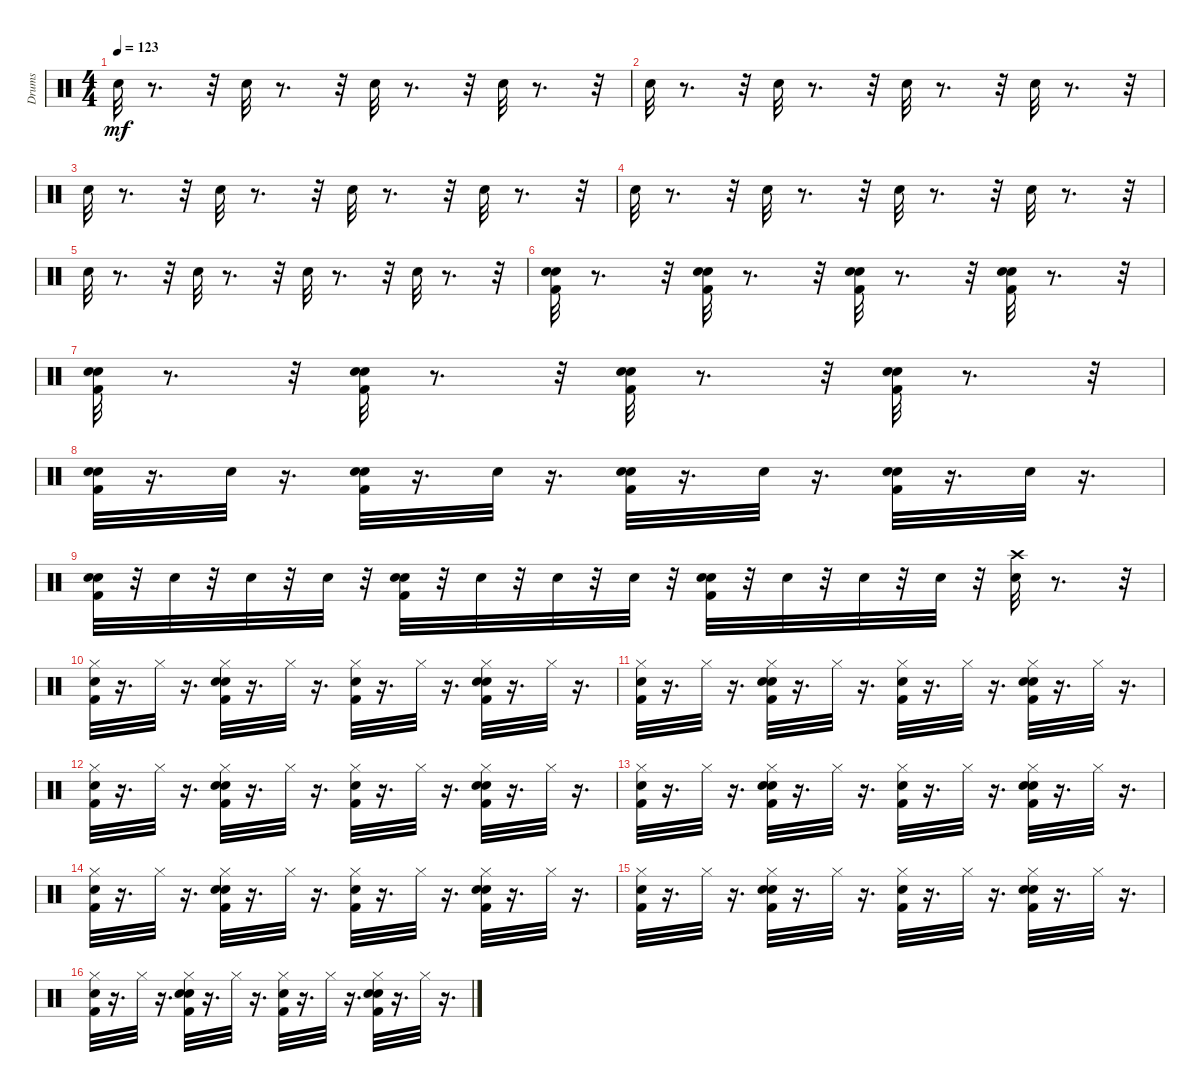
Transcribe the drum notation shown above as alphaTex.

\track ("Drums" "Drums") {instrument percussion}
\staff {score}
\articulation defaults
\ts (4 4)
\tempo 123
\clef neutral
\ks c "Hand Clap (hit)".32{dy mf}
r.8{d} r.32 "Hand Clap (hit)".32 r.8{d} r.32 "Hand Clap (hit)".32 r.8{d} r.32 "Hand Clap (hit)".32 r.8{d} r.32 |
"Hand Clap (hit)".32 r.8{d} r.32 "Hand Clap (hit)".32 r.8{d} r.32 "Hand Clap (hit)".32 r.8{d} r.32 "Hand Clap (hit)".32 r.8{d} r.32 |
"Hand Clap (hit)".32 r.8{d} r.32 "Hand Clap (hit)".32 r.8{d} r.32 "Hand Clap (hit)".32 r.8{d} r.32 "Hand Clap (hit)".32 r.8{d} r.32 |
"Hand Clap (hit)".32 r.8{d} r.32 "Hand Clap (hit)".32 r.8{d} r.32 "Hand Clap (hit)".32 r.8{d} r.32 "Hand Clap (hit)".32 r.8{d} r.32 |
"Hand Clap (hit)".32 r.8{d} r.32 "Hand Clap (hit)".32 r.8{d} r.32 "Hand Clap (hit)".32 r.8{d} r.32 "Hand Clap (hit)".32 r.8{d} r.32 |
("Kick (hit) 2" "Hand Clap (hit)" "Electric Snare (hit)").32 r.8{d} r.32 ("Kick (hit) 2" "Hand Clap (hit)" "Electric Snare (hit)").32 r.8{d} r.32 ("Kick (hit) 2" "Hand Clap (hit)" "Electric Snare (hit)").32 r.8{d} r.32 ("Kick (hit) 2" "Hand Clap (hit)" "Electric Snare (hit)").32 r.8{d} r.32 |
("Kick (hit) 2" "Hand Clap (hit)" "Electric Snare (hit)").32 r.8{d} r.32 ("Kick (hit) 2" "Hand Clap (hit)" "Electric Snare (hit)").32 r.8{d} r.32 ("Kick (hit) 2" "Hand Clap (hit)" "Electric Snare (hit)").32 r.8{d} r.32 ("Kick (hit) 2" "Hand Clap (hit)" "Electric Snare (hit)").32 r.8{d} r.32 |
("Kick (hit) 2" "Hand Clap (hit)" "Electric Snare (hit)").32 r.16{d} "Snare (hit) 2".32 r.16{d} ("Kick (hit) 2" "Hand Clap (hit)" "Electric Snare (hit)").32 r.16{d} "Snare (hit) 2".32 r.16{d} ("Kick (hit) 2" "Hand Clap (hit)" "Electric Snare (hit)").32 r.16{d} "Snare (hit) 2".32 r.16{d} ("Kick (hit) 2" "Hand Clap (hit)" "Electric Snare (hit)").32 r.16{d} "Snare (hit) 2".32 r.16{d} |
("Kick (hit) 2" "Hand Clap (hit)" "Electric Snare (hit)").32 r.32 "Snare (hit) 2".32 r.32 "Electric Snare (hit)".32 r.32 "Snare (hit) 2".32 r.32 ("Kick (hit) 2" "Hand Clap (hit)" "Electric Snare (hit)").32 r.32 "Snare (hit) 2".32 r.32 "Electric Snare (hit)".32 r.32 "Snare (hit) 2".32 r.32 ("Kick (hit) 2" "Hand Clap (hit)" "Electric Snare (hit)").32 r.32 "Snare (hit) 2".32 r.32 "Electric Snare (hit)".32 r.32 "Snare (hit) 2".32 r.32 ("Hand Clap (hit)" "Crash high (hit)").32 r.8{d} r.32 |
("Kick (hit) 2" "Hand Clap (hit)" "Hi-Hat (closed)").32 r.16{d} "Hi-Hat (closed)".32 r.16{d} ("Kick (hit) 2" "Snare (hit) 2" "Hand Clap (hit)" "Hi-Hat (closed)").32 r.16{d} "Hi-Hat (closed)".32 r.16{d} ("Kick (hit) 2" "Hand Clap (hit)" "Hi-Hat (closed)").32 r.16{d} "Hi-Hat (closed)".32 r.16{d} ("Kick (hit) 2" "Snare (hit) 2" "Hand Clap (hit)" "Hi-Hat (closed)").32 r.16{d} "Hi-Hat (closed)".32 r.16{d} |
("Kick (hit) 2" "Hand Clap (hit)" "Hi-Hat (closed)").32 r.16{d} "Hi-Hat (closed)".32 r.16{d} ("Kick (hit) 2" "Snare (hit) 2" "Hand Clap (hit)" "Hi-Hat (closed)").32 r.16{d} "Hi-Hat (closed)".32 r.16{d} ("Kick (hit) 2" "Hand Clap (hit)" "Hi-Hat (closed)").32 r.16{d} "Hi-Hat (closed)".32 r.16{d} ("Kick (hit) 2" "Snare (hit) 2" "Hand Clap (hit)" "Hi-Hat (closed)").32 r.16{d} "Hi-Hat (closed)".32 r.16{d} |
("Kick (hit) 2" "Hand Clap (hit)" "Hi-Hat (closed)").32 r.16{d} "Hi-Hat (closed)".32 r.16{d} ("Kick (hit) 2" "Snare (hit) 2" "Hand Clap (hit)" "Hi-Hat (closed)").32 r.16{d} "Hi-Hat (closed)".32 r.16{d} ("Kick (hit) 2" "Hand Clap (hit)" "Hi-Hat (closed)").32 r.16{d} "Hi-Hat (closed)".32 r.16{d} ("Kick (hit) 2" "Snare (hit) 2" "Hand Clap (hit)" "Hi-Hat (closed)").32 r.16{d} "Hi-Hat (closed)".32 r.16{d} |
("Kick (hit) 2" "Hand Clap (hit)" "Hi-Hat (closed)").32 r.16{d} "Hi-Hat (closed)".32 r.16{d} ("Kick (hit) 2" "Snare (hit) 2" "Hand Clap (hit)" "Hi-Hat (closed)").32 r.16{d} "Hi-Hat (closed)".32 r.16{d} ("Kick (hit) 2" "Hand Clap (hit)" "Hi-Hat (closed)").32 r.16{d} "Hi-Hat (closed)".32 r.16{d} ("Kick (hit) 2" "Snare (hit) 2" "Hand Clap (hit)" "Hi-Hat (closed)").32 r.16{d} "Hi-Hat (closed)".32 r.16{d} |
("Kick (hit) 2" "Hand Clap (hit)" "Hi-Hat (closed)").32 r.16{d} "Hi-Hat (closed)".32 r.16{d} ("Kick (hit) 2" "Snare (hit) 2" "Hand Clap (hit)" "Hi-Hat (closed)").32 r.16{d} "Hi-Hat (closed)".32 r.16{d} ("Kick (hit) 2" "Hand Clap (hit)" "Hi-Hat (closed)").32 r.16{d} "Hi-Hat (closed)".32 r.16{d} ("Kick (hit) 2" "Snare (hit) 2" "Hand Clap (hit)" "Hi-Hat (closed)").32 r.16{d} "Hi-Hat (closed)".32 r.16{d} |
("Kick (hit) 2" "Hand Clap (hit)" "Hi-Hat (closed)").32 r.16{d} "Hi-Hat (closed)".32 r.16{d} ("Kick (hit) 2" "Snare (hit) 2" "Hand Clap (hit)" "Hi-Hat (closed)").32 r.16{d} "Hi-Hat (closed)".32 r.16{d} ("Kick (hit) 2" "Hand Clap (hit)" "Hi-Hat (closed)").32 r.16{d} "Hi-Hat (closed)".32 r.16{d} ("Kick (hit) 2" "Snare (hit) 2" "Hand Clap (hit)" "Hi-Hat (closed)").32 r.16{d} "Hi-Hat (closed)".32 r.16{d} |
("Kick (hit) 2" "Hand Clap (hit)" "Hi-Hat (closed)").32 r.16{d} "Hi-Hat (closed)".32 r.16{d} ("Kick (hit) 2" "Snare (hit) 2" "Hand Clap (hit)" "Hi-Hat (closed)").32 r.16{d} "Hi-Hat (closed)".32 r.16{d} ("Kick (hit) 2" "Hand Clap (hit)" "Hi-Hat (closed)").32 r.16{d} "Hi-Hat (closed)".32 r.16{d} ("Kick (hit) 2" "Snare (hit) 2" "Hand Clap (hit)" "Hi-Hat (closed)").32 r.16{d} "Hi-Hat (closed)".32 r.16{d}
